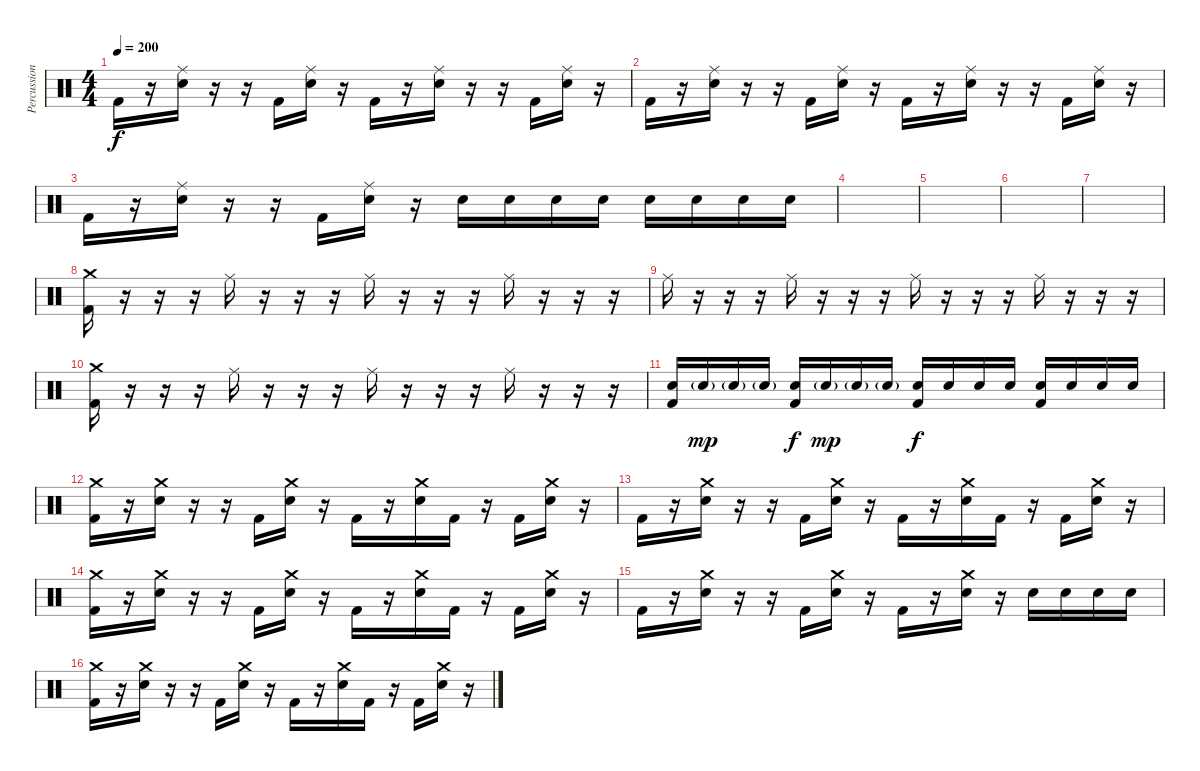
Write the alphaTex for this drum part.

\track ("Percussion" "Percussion") {instrument percussion}
\staff {score}
\articulation defaults
\ts (4 4)
\tempo 200
\clef neutral
\ks c "Kick (hit) 2".16{dy f}
r.16 ("Ride (middle)" "Electric Snare (hit)").16 r.16 r.16 "Kick (hit) 2".16 ("Ride (middle)" "Electric Snare (hit)").16 r.16 "Kick (hit) 2".16 r.16 ("Ride (middle)" "Electric Snare (hit)").16 r.16 r.16 "Kick (hit) 2".16 ("Ride (middle)" "Electric Snare (hit)").16 r.16 |
"Kick (hit) 2".16 r.16 ("Ride (middle)" "Electric Snare (hit)").16 r.16 r.16 "Kick (hit) 2".16 ("Ride (middle)" "Electric Snare (hit)").16 r.16 "Kick (hit) 2".16 r.16 ("Ride (middle)" "Electric Snare (hit)").16 r.16 r.16 "Kick (hit) 2".16 ("Ride (middle)" "Electric Snare (hit)").16 r.16 |
"Kick (hit) 2".16 r.16 ("Ride (middle)" "Electric Snare (hit)").16 r.16 r.16 "Kick (hit) 2".16 ("Ride (middle)" "Electric Snare (hit)").16 r.16 "Electric Snare (hit)".16 "Electric Snare (hit)".16 "Electric Snare (hit)".16 "Electric Snare (hit)".16 "Electric Snare (hit)".16 "Electric Snare (hit)".16 "Electric Snare (hit)".16 "Electric Snare (hit)".16 |
|
|
|
|
("Crash medium (hit)" "Kick (hit) 2").16 r.16 r.16 r.16 "Ride (middle)".16 r.16 r.16 r.16 "Ride (middle)".16 r.16 r.16 r.16 "Ride (middle)".16 r.16 r.16 r.16 |
"Ride (middle)".16 r.16 r.16 r.16 "Ride (middle)".16 r.16 r.16 r.16 "Ride (middle)".16 r.16 r.16 r.16 "Ride (middle)".16 r.16 r.16 r.16 |
("Crash medium (hit)" "Kick (hit) 2").16 r.16 r.16 r.16 "Ride (middle)".16 r.16 r.16 r.16 "Ride (middle)".16 r.16 r.16 r.16 "Ride (middle)".16 r.16 r.16 r.16 |
("Electric Snare (hit)" "Kick (hit) 2").16 "Electric Snare (hit)"{g}.16{dy mp} "Electric Snare (hit)"{g}.16 "Electric Snare (hit)"{g}.16 ("Electric Snare (hit)" "Kick (hit) 2").16{dy f} "Electric Snare (hit)"{g}.16{dy mp} "Electric Snare (hit)"{g}.16 "Electric Snare (hit)"{g}.16 ("Electric Snare (hit)" "Kick (hit) 2").16{dy f} "Electric Snare (hit)".16 "Electric Snare (hit)".16 "Electric Snare (hit)".16 ("Electric Snare (hit)" "Kick (hit) 2").16 "Electric Snare (hit)".16 "Electric Snare (hit)".16 "Electric Snare (hit)".16 |
("Crash medium (hit)" "Kick (hit) 2").16 r.16 ("Crash medium (hit)" "Electric Snare (hit)").16 r.16 r.16 "Kick (hit) 2".16 ("Crash medium (hit)" "Electric Snare (hit)").16 r.16 "Kick (hit) 2".16 r.16 ("Crash medium (hit)" "Electric Snare (hit)").16 "Kick (hit) 2".16 r.16 "Kick (hit) 2".16 ("Crash medium (hit)" "Electric Snare (hit)").16 r.16 |
"Kick (hit) 2".16 r.16 ("Crash medium (hit)" "Electric Snare (hit)").16 r.16 r.16 "Kick (hit) 2".16 ("Crash medium (hit)" "Electric Snare (hit)").16 r.16 "Kick (hit) 2".16 r.16 ("Crash medium (hit)" "Electric Snare (hit)").16 "Kick (hit) 2".16 r.16 "Kick (hit) 2".16 ("Crash medium (hit)" "Electric Snare (hit)").16 r.16 |
("Crash medium (hit)" "Kick (hit) 2").16 r.16 ("Crash medium (hit)" "Electric Snare (hit)").16 r.16 r.16 "Kick (hit) 2".16 ("Crash medium (hit)" "Electric Snare (hit)").16 r.16 "Kick (hit) 2".16 r.16 ("Crash medium (hit)" "Electric Snare (hit)").16 "Kick (hit) 2".16 r.16 "Kick (hit) 2".16 ("Crash medium (hit)" "Electric Snare (hit)").16 r.16 |
"Kick (hit) 2".16 r.16 ("Crash medium (hit)" "Electric Snare (hit)").16 r.16 r.16 "Kick (hit) 2".16 ("Crash medium (hit)" "Electric Snare (hit)").16 r.16 "Kick (hit) 2".16 r.16 ("Crash medium (hit)" "Electric Snare (hit)").16 r.16 "Electric Snare (hit)".16 "Electric Snare (hit)".16 "Electric Snare (hit)".16 "Electric Snare (hit)".16 |
("Crash medium (hit)" "Kick (hit) 2").16 r.16 ("Crash medium (hit)" "Electric Snare (hit)").16 r.16 r.16 "Kick (hit) 2".16 ("Crash medium (hit)" "Electric Snare (hit)").16 r.16 "Kick (hit) 2".16 r.16 ("Crash medium (hit)" "Electric Snare (hit)").16 "Kick (hit) 2".16 r.16 "Kick (hit) 2".16 ("Crash medium (hit)" "Electric Snare (hit)").16 r.16
